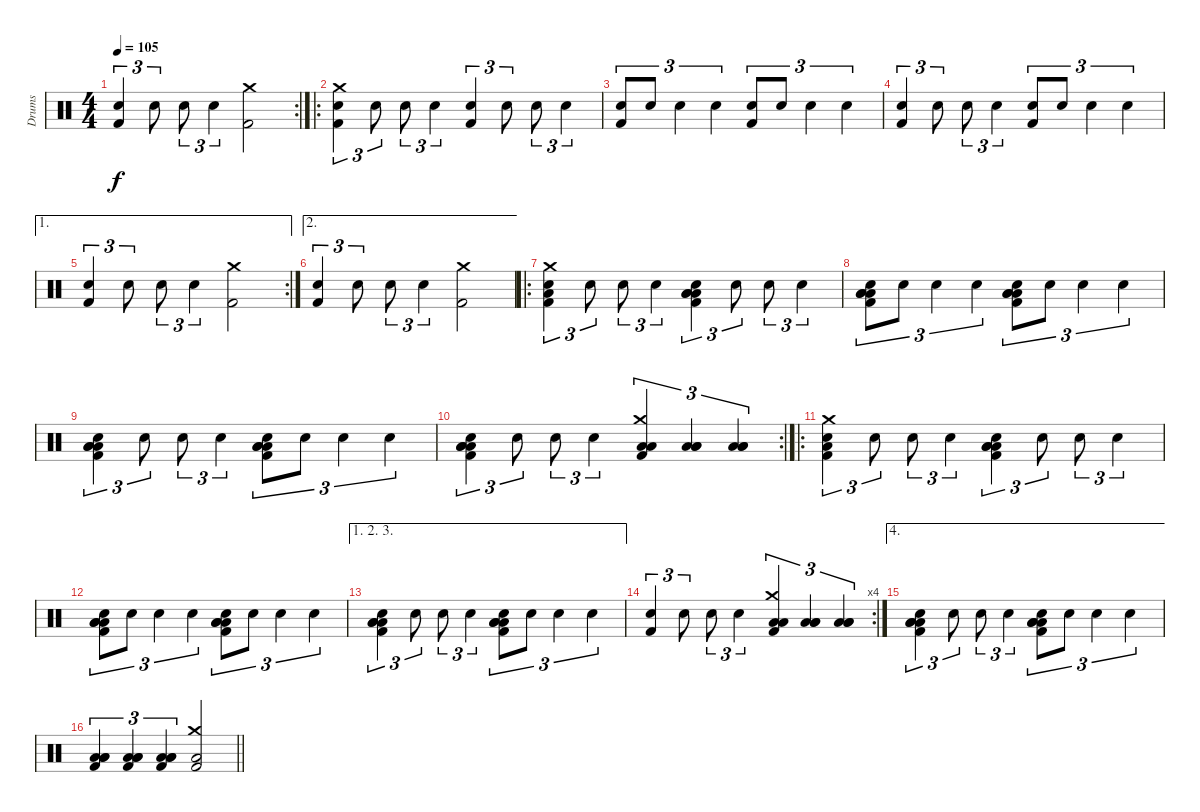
\track ("Drums" "Drums") {instrument percussion}
\staff {score}
\articulation defaults
\rc 2
\ts (4 4)
\tempo 105
\clef neutral
\ks c
("Snare (hit) 2" "Kick (hit) 2").4{tu (3 2) dy f} "Snare (hit) 2".8{tu (3 2)} "Snare (hit) 2".8{tu (3 2)} "Snare (hit) 2".4{tu (3 2)} ("Crash medium (hit)" "Kick (hit) 2").2 |
\ro
("Crash medium (hit)" "Snare (hit) 2" "Kick (hit) 2").4{tu (3 2)} "Snare (hit) 2".8{tu (3 2)} "Snare (hit) 2".8{tu (3 2)} "Snare (hit) 2".4{tu (3 2)} ("Snare (hit) 2" "Kick (hit) 2").4{tu (3 2)} "Snare (hit) 2".8{tu (3 2)} "Snare (hit) 2".8{tu (3 2)} "Snare (hit) 2".4{tu (3 2)} |
("Snare (hit) 2" "Kick (hit) 2").8{tu (3 2)} "Snare (hit) 2".8{tu (3 2)} "Snare (hit) 2".4{tu (3 2)} "Snare (hit) 2".4{tu (3 2)} ("Snare (hit) 2" "Kick (hit) 2").8{tu (3 2)} "Snare (hit) 2".8{tu (3 2)} "Snare (hit) 2".4{tu (3 2)} "Snare (hit) 2".4{tu (3 2)} |
("Snare (hit) 2" "Kick (hit) 2").4{tu (3 2)} "Snare (hit) 2".8{tu (3 2)} "Snare (hit) 2".8{tu (3 2)} "Snare (hit) 2".4{tu (3 2)} ("Snare (hit) 2" "Kick (hit) 2").8{tu (3 2)} "Snare (hit) 2".8{tu (3 2)} "Snare (hit) 2".4{tu (3 2)} "Snare (hit) 2".4{tu (3 2)} |
\ae 1
\rc 2
("Snare (hit) 2" "Kick (hit) 2").4{tu (3 2)} "Snare (hit) 2".8{tu (3 2)} "Snare (hit) 2".8{tu (3 2)} "Snare (hit) 2".4{tu (3 2)} ("Crash medium (hit)" "Kick (hit) 2").2 |
\ae 2
("Snare (hit) 2" "Kick (hit) 2").4{tu (3 2)} "Snare (hit) 2".8{tu (3 2)} "Snare (hit) 2".8{tu (3 2)} "Snare (hit) 2".4{tu (3 2)} ("Crash medium (hit)" "Kick (hit) 2").2 |
\ro
("Low Floor Tom (hit)" "Crash medium (hit)" "Snare (hit) 2" "Kick (hit) 2").4{tu (3 2)} "Snare (hit) 2".8{tu (3 2)} "Snare (hit) 2".8{tu (3 2)} "Snare (hit) 2".4{tu (3 2)} ("Low Floor Tom (hit)" "Low Floor Tom (hit)" "Low Floor Tom (hit)" "Snare (hit) 2" "Kick (hit) 2").4{tu (3 2)} "Snare (hit) 2".8{tu (3 2)} "Snare (hit) 2".8{tu (3 2)} "Snare (hit) 2".4{tu (3 2)} |
("Low Floor Tom (hit)" "Low Floor Tom (hit)" "Low Floor Tom (hit)" "Snare (hit) 2" "Kick (hit) 2").8{tu (3 2)} "Snare (hit) 2".8{tu (3 2)} "Snare (hit) 2".4{tu (3 2)} "Snare (hit) 2".4{tu (3 2)} ("Low Floor Tom (hit)" "Low Floor Tom (hit)" "Low Floor Tom (hit)" "Snare (hit) 2" "Kick (hit) 2").8{tu (3 2)} "Snare (hit) 2".8{tu (3 2)} "Snare (hit) 2".4{tu (3 2)} "Snare (hit) 2".4{tu (3 2)} |
("Low Floor Tom (hit)" "Low Floor Tom (hit)" "Low Floor Tom (hit)" "Snare (hit) 2" "Kick (hit) 2").4{tu (3 2)} "Snare (hit) 2".8{tu (3 2)} "Snare (hit) 2".8{tu (3 2)} "Snare (hit) 2".4{tu (3 2)} ("Low Floor Tom (hit)" "Low Floor Tom (hit)" "Low Floor Tom (hit)" "Snare (hit) 2" "Kick (hit) 2").8{tu (3 2)} "Snare (hit) 2".8{tu (3 2)} "Snare (hit) 2".4{tu (3 2)} "Snare (hit) 2".4{tu (3 2)} |
\rc 2
("Low Floor Tom (hit)" "Low Floor Tom (hit)" "Low Floor Tom (hit)" "Snare (hit) 2" "Kick (hit) 2").4{tu (3 2)} "Snare (hit) 2".8{tu (3 2)} "Snare (hit) 2".8{tu (3 2)} "Snare (hit) 2".4{tu (3 2)} ("Low Floor Tom (hit)" "Crash medium (hit)" "Low Floor Tom (hit)" "Kick (hit) 2").4{tu (3 2)} ("Low Floor Tom (hit)" "Low Floor Tom (hit)" "Low Floor Tom (hit)").4{tu (3 2)} ("Low Floor Tom (hit)" "Low Floor Tom (hit)" "Low Floor Tom (hit)").4{tu (3 2)} |
\ro
("Low Floor Tom (hit)" "Crash medium (hit)" "Snare (hit) 2" "Kick (hit) 2").4{tu (3 2)} "Snare (hit) 2".8{tu (3 2)} "Snare (hit) 2".8{tu (3 2)} "Snare (hit) 2".4{tu (3 2)} ("Low Floor Tom (hit)" "Low Floor Tom (hit)" "Low Floor Tom (hit)" "Snare (hit) 2" "Kick (hit) 2").4{tu (3 2)} "Snare (hit) 2".8{tu (3 2)} "Snare (hit) 2".8{tu (3 2)} "Snare (hit) 2".4{tu (3 2)} |
("Low Floor Tom (hit)" "Low Floor Tom (hit)" "Low Floor Tom (hit)" "Snare (hit) 2" "Kick (hit) 2").8{tu (3 2)} "Snare (hit) 2".8{tu (3 2)} "Snare (hit) 2".4{tu (3 2)} "Snare (hit) 2".4{tu (3 2)} ("Low Floor Tom (hit)" "Low Floor Tom (hit)" "Low Floor Tom (hit)" "Snare (hit) 2" "Kick (hit) 2").8{tu (3 2)} "Snare (hit) 2".8{tu (3 2)} "Snare (hit) 2".4{tu (3 2)} "Snare (hit) 2".4{tu (3 2)} |
\ae (1 2 3)
("Low Floor Tom (hit)" "Low Floor Tom (hit)" "Low Floor Tom (hit)" "Snare (hit) 2" "Kick (hit) 2").4{tu (3 2)} "Snare (hit) 2".8{tu (3 2)} "Snare (hit) 2".8{tu (3 2)} "Snare (hit) 2".4{tu (3 2)} ("Low Floor Tom (hit)" "Low Floor Tom (hit)" "Low Floor Tom (hit)" "Snare (hit) 2" "Kick (hit) 2").8{tu (3 2)} "Snare (hit) 2".8{tu (3 2)} "Snare (hit) 2".4{tu (3 2)} "Snare (hit) 2".4{tu (3 2)} |
\rc 4
("Snare (hit) 2" "Kick (hit) 2").4{tu (3 2)} "Snare (hit) 2".8{tu (3 2)} "Snare (hit) 2".8{tu (3 2)} "Snare (hit) 2".4{tu (3 2)} ("Low Floor Tom (hit)" "Crash medium (hit)" "Low Floor Tom (hit)" "Kick (hit) 2").4{tu (3 2)} ("Low Floor Tom (hit)" "Low Floor Tom (hit)" "Low Floor Tom (hit)").4{tu (3 2)} ("Low Floor Tom (hit)" "Low Floor Tom (hit)" "Low Floor Tom (hit)").4{tu (3 2)} |
\ae 4
("Low Floor Tom (hit)" "Low Floor Tom (hit)" "Low Floor Tom (hit)" "Snare (hit) 2" "Kick (hit) 2").4{tu (3 2)} "Snare (hit) 2".8{tu (3 2)} "Snare (hit) 2".8{tu (3 2)} "Snare (hit) 2".4{tu (3 2)} ("Low Floor Tom (hit)" "Low Floor Tom (hit)" "Low Floor Tom (hit)" "Snare (hit) 2" "Kick (hit) 2").8{tu (3 2)} "Snare (hit) 2".8{tu (3 2)} "Snare (hit) 2".4{tu (3 2)} "Snare (hit) 2".4{tu (3 2)} |
\barLineRight lightlight
("Low Floor Tom (hit)" "Low Floor Tom (hit)" "Low Floor Tom (hit)" "Kick (hit) 2").4{tu (3 2)} ("Low Floor Tom (hit)" "Low Floor Tom (hit)" "Low Floor Tom (hit)" "Kick (hit) 2").4{tu (3 2)} ("Low Floor Tom (hit)" "Low Floor Tom (hit)" "Low Floor Tom (hit)" "Kick (hit) 2").4{tu (3 2)} ("Crash medium (hit)" "Low Floor Tom (hit)" "Kick (hit) 2").2
